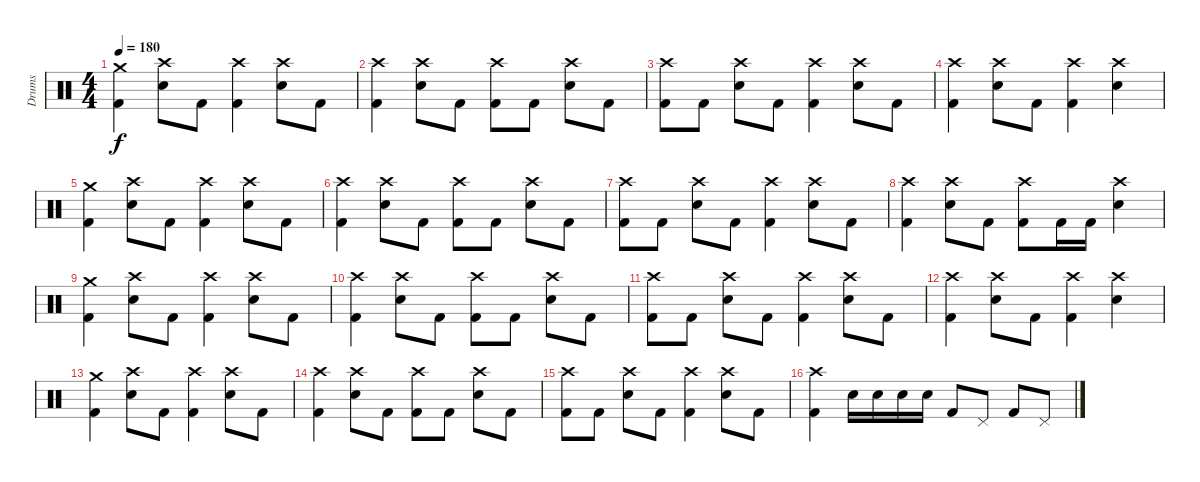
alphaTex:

\track ("Drums" "Drums") {instrument percussion}
\staff {score}
\articulation defaults
\ts (4 4)
\tempo 180
\clef neutral
\ks c
("Crash medium (hit)" "Kick (hit) 2").4{dy f} ("Crash high (hit)" "Snare (hit) 2").8 "Kick (hit) 2".8 ("Crash high (hit)" "Kick (hit) 2").4 ("Crash high (hit)" "Snare (hit) 2").8 "Kick (hit) 2".8 |
("Crash high (hit)" "Kick (hit) 2").4 ("Crash high (hit)" "Snare (hit) 2").8 "Kick (hit) 2".8 ("Crash high (hit)" "Kick (hit) 2").8 "Kick (hit) 2".8 ("Crash high (hit)" "Snare (hit) 2").8 "Kick (hit) 2".8 |
("Crash high (hit)" "Kick (hit) 2").8 "Kick (hit) 2".8 ("Crash high (hit)" "Snare (hit) 2").8 "Kick (hit) 2".8 ("Crash high (hit)" "Kick (hit) 2").4 ("Crash high (hit)" "Snare (hit) 2").8 "Kick (hit) 2".8 |
("Crash high (hit)" "Kick (hit) 2").4 ("Crash high (hit)" "Snare (hit) 2").8 "Kick (hit) 2".8 ("Crash high (hit)" "Kick (hit) 2").4 ("Crash high (hit)" "Snare (hit) 2").4 |
("Crash medium (hit)" "Kick (hit) 2").4 ("Crash high (hit)" "Snare (hit) 2").8 "Kick (hit) 2".8 ("Crash high (hit)" "Kick (hit) 2").4 ("Crash high (hit)" "Snare (hit) 2").8 "Kick (hit) 2".8 |
("Crash high (hit)" "Kick (hit) 2").4 ("Crash high (hit)" "Snare (hit) 2").8 "Kick (hit) 2".8 ("Crash high (hit)" "Kick (hit) 2").8 "Kick (hit) 2".8 ("Crash high (hit)" "Snare (hit) 2").8 "Kick (hit) 2".8 |
("Crash high (hit)" "Kick (hit) 2").8 "Kick (hit) 2".8 ("Crash high (hit)" "Snare (hit) 2").8 "Kick (hit) 2".8 ("Crash high (hit)" "Kick (hit) 2").4 ("Crash high (hit)" "Snare (hit) 2").8 "Kick (hit) 2".8 |
("Crash high (hit)" "Kick (hit) 2").4 ("Crash high (hit)" "Snare (hit) 2").8 "Kick (hit) 2".8 ("Crash high (hit)" "Kick (hit) 2").8 "Kick (hit) 2".16 "Kick (hit) 2".16 ("Crash high (hit)" "Snare (hit) 2").4 |
("Crash medium (hit)" "Kick (hit) 2").4 ("Crash high (hit)" "Snare (hit) 2").8 "Kick (hit) 2".8 ("Crash high (hit)" "Kick (hit) 2").4 ("Crash high (hit)" "Snare (hit) 2").8 "Kick (hit) 2".8 |
("Crash high (hit)" "Kick (hit) 2").4 ("Crash high (hit)" "Snare (hit) 2").8 "Kick (hit) 2".8 ("Crash high (hit)" "Kick (hit) 2").8 "Kick (hit) 2".8 ("Crash high (hit)" "Snare (hit) 2").8 "Kick (hit) 2".8 |
("Crash high (hit)" "Kick (hit) 2").8 "Kick (hit) 2".8 ("Crash high (hit)" "Snare (hit) 2").8 "Kick (hit) 2".8 ("Crash high (hit)" "Kick (hit) 2").4 ("Crash high (hit)" "Snare (hit) 2").8 "Kick (hit) 2".8 |
("Crash high (hit)" "Kick (hit) 2").4 ("Crash high (hit)" "Snare (hit) 2").8 "Kick (hit) 2".8 ("Crash high (hit)" "Kick (hit) 2").4 ("Crash high (hit)" "Snare (hit) 2").4 |
("Crash medium (hit)" "Kick (hit) 2").4 ("Crash high (hit)" "Snare (hit) 2").8 "Kick (hit) 2".8 ("Crash high (hit)" "Kick (hit) 2").4 ("Crash high (hit)" "Snare (hit) 2").8 "Kick (hit) 2".8 |
("Crash high (hit)" "Kick (hit) 2").4 ("Crash high (hit)" "Snare (hit) 2").8 "Kick (hit) 2".8 ("Crash high (hit)" "Kick (hit) 2").8 "Kick (hit) 2".8 ("Crash high (hit)" "Snare (hit) 2").8 "Kick (hit) 2".8 |
("Crash high (hit)" "Kick (hit) 2").8 "Kick (hit) 2".8 ("Crash high (hit)" "Snare (hit) 2").8 "Kick (hit) 2".8 ("Crash high (hit)" "Kick (hit) 2").4 ("Crash high (hit)" "Snare (hit) 2").8 "Kick (hit) 2".8 |
("Crash high (hit)" "Kick (hit) 2").4 "Snare (hit) 2".16 "Snare (hit) 2".16 "Snare (hit) 2".16 "Snare (hit) 2".16 "Kick (hit) 2".8 "Pedal Hi-Hat (hit)".8 "Kick (hit) 2".8 "Pedal Hi-Hat (hit)".8
